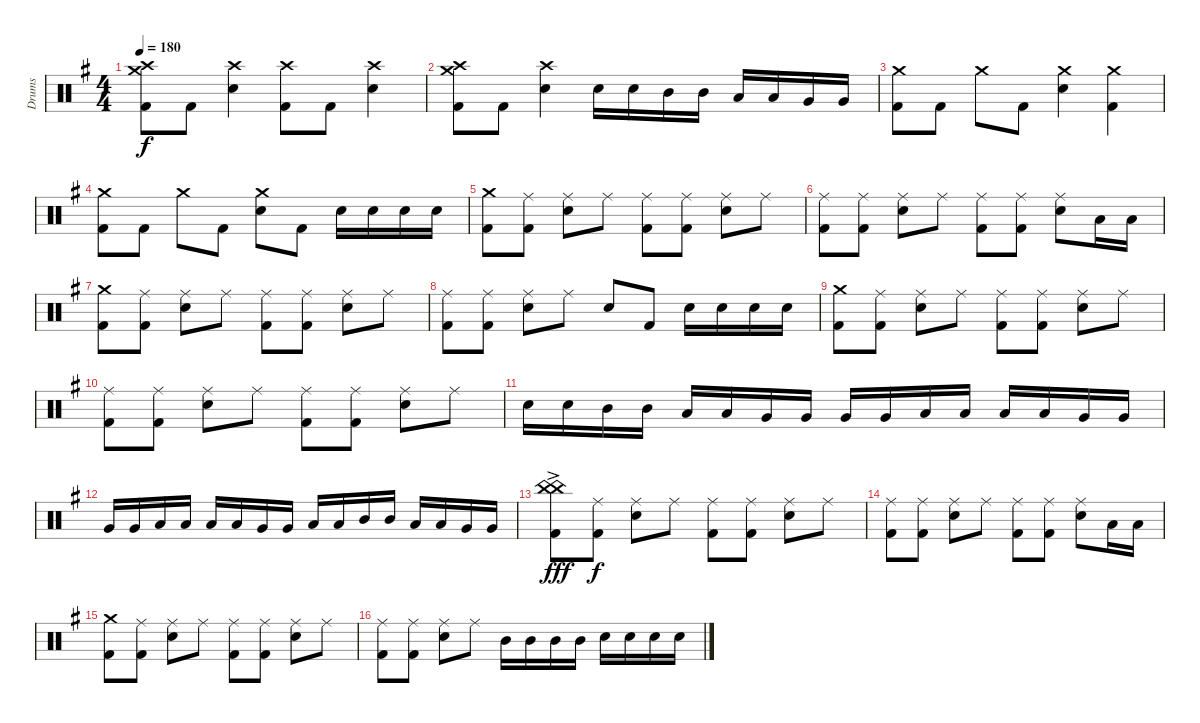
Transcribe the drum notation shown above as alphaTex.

\track ("Drums" "Drums") {instrument percussion}
\staff {score}
\articulation defaults
\ts (4 4)
\tempo 180
\clef neutral
\ks g
("Crash medium (hit)" "Crash high (hit)" "Kick (hit) 2").8{dy f} "Kick (hit) 2".8 ("Crash high (hit)" "Electric Snare (hit)").4 ("Crash high (hit)" "Kick (hit) 2").8 "Kick (hit) 2".8 ("Crash high (hit)" "Electric Snare (hit)").4 |
("Crash medium (hit)" "Crash high (hit)" "Kick (hit) 2").8 "Kick (hit) 2".8 ("Crash high (hit)" "Electric Snare (hit)").4 "Electric Snare (hit)".16 "Electric Snare (hit)".16 "Mid Tom (hit)".16 "Mid Tom (hit)".16 "Low Tom (hit)".16 "Low Tom (hit)".16 "Very Low Tom (hit)".16 "Very Low Tom (hit)".16 |
("Crash medium (hit)" "Kick (hit) 2").8 "Kick (hit) 2".8 "Crash medium (hit)".8 "Kick (hit) 2".8 ("Crash medium (hit)" "Electric Snare (hit)").4 ("Crash medium (hit)" "Kick (hit) 2").4 |
("Crash medium (hit)" "Kick (hit) 2").8 "Kick (hit) 2".8 "Crash medium (hit)".8 "Kick (hit) 2".8 ("Crash medium (hit)" "Electric Snare (hit)").8 "Kick (hit) 2".8 "Electric Snare (hit)".16 "Electric Snare (hit)".16 "Electric Snare (hit)".16 "Electric Snare (hit)".16 |
("Crash medium (hit)" "Kick (hit) 2").8 ("Ride (middle)" "Kick (hit) 2").8 ("Ride (middle)" "Electric Snare (hit)").8 "Ride (middle)".8 ("Ride (middle)" "Kick (hit) 2").8 ("Ride (middle)" "Kick (hit) 2").8 ("Ride (middle)" "Electric Snare (hit)").8 "Ride (middle)".8 |
("Ride (middle)" "Kick (hit) 2").8 ("Ride (middle)" "Kick (hit) 2").8 ("Ride (middle)" "Electric Snare (hit)").8 "Ride (middle)".8 ("Ride (middle)" "Kick (hit) 2").8 ("Ride (middle)" "Kick (hit) 2").8 ("Ride (middle)" "Electric Snare (hit)").8 "Low Tom (hit)".16 "Low Tom (hit)".16 |
("Crash medium (hit)" "Kick (hit) 2").8 ("Ride (middle)" "Kick (hit) 2").8 ("Ride (middle)" "Electric Snare (hit)").8 "Ride (middle)".8 ("Ride (middle)" "Kick (hit) 2").8 ("Ride (middle)" "Kick (hit) 2").8 ("Ride (middle)" "Electric Snare (hit)").8 "Ride (middle)".8 |
("Ride (middle)" "Kick (hit) 2").8 ("Ride (middle)" "Kick (hit) 2").8 ("Ride (middle)" "Electric Snare (hit)").8 "Ride (middle)".8 "Electric Snare (hit)".8 "Kick (hit) 2".8 "Electric Snare (hit)".16 "Electric Snare (hit)".16 "Electric Snare (hit)".16 "Electric Snare (hit)".16 |
("Crash medium (hit)" "Kick (hit) 2").8 ("Ride (middle)" "Kick (hit) 2").8 ("Ride (middle)" "Electric Snare (hit)").8 "Ride (middle)".8 ("Ride (middle)" "Kick (hit) 2").8 ("Ride (middle)" "Kick (hit) 2").8 ("Ride (middle)" "Electric Snare (hit)").8 "Ride (middle)".8 |
("Ride (middle)" "Kick (hit) 2").8 ("Ride (middle)" "Kick (hit) 2").8 ("Ride (middle)" "Electric Snare (hit)").8 "Ride (middle)".8 ("Ride (middle)" "Kick (hit) 2").8 ("Ride (middle)" "Kick (hit) 2").8 ("Ride (middle)" "Electric Snare (hit)").8 "Ride (middle)".8 |
"Electric Snare (hit)".16 "Electric Snare (hit)".16 "Mid Tom (hit)".16 "Mid Tom (hit)".16 "Low Tom (hit)".16 "Low Tom (hit)".16 "Very Low Tom (hit)".16 "Very Low Tom (hit)".16 "Very Low Tom (hit)".16 "Very Low Tom (hit)".16 "Low Tom (hit)".16 "Low Tom (hit)".16 "Low Tom (hit)".16 "Low Tom (hit)".16 "Very Low Tom (hit)".16 "Very Low Tom (hit)".16 |
"Very Low Tom (hit)".16 "Very Low Tom (hit)".16 "Low Tom (hit)".16 "Low Tom (hit)".16 "Low Tom (hit)".16 "Low Tom (hit)".16 "Very Low Tom (hit)".16 "Very Low Tom (hit)".16 "Low Floor Tom (hit)".16 "Low Floor Tom (hit)".16 "Mid Tom (hit)".16 "Mid Tom (hit)".16 "Low Tom (hit)".16 "Low Tom (hit)".16 "Very Low Tom (hit)".16 "Very Low Tom (hit)".16 |
("China (hit)"{ac} "China (hit)"{ac} "Kick (hit) 2").8{dy fff} ("Ride (middle)" "Kick (hit) 2").8{dy f} ("Ride (middle)" "Electric Snare (hit)").8 "Ride (middle)".8 ("Ride (middle)" "Kick (hit) 2").8 ("Ride (middle)" "Kick (hit) 2").8 ("Ride (middle)" "Electric Snare (hit)").8 "Ride (middle)".8 |
("Ride (middle)" "Kick (hit) 2").8 ("Ride (middle)" "Kick (hit) 2").8 ("Ride (middle)" "Electric Snare (hit)").8 "Ride (middle)".8 ("Ride (middle)" "Kick (hit) 2").8 ("Ride (middle)" "Kick (hit) 2").8 ("Ride (middle)" "Electric Snare (hit)").8 "Low Tom (hit)".16 "Low Tom (hit)".16 |
("Crash medium (hit)" "Kick (hit) 2").8 ("Ride (middle)" "Kick (hit) 2").8 ("Ride (middle)" "Electric Snare (hit)").8 "Ride (middle)".8 ("Ride (middle)" "Kick (hit) 2").8 ("Ride (middle)" "Kick (hit) 2").8 ("Ride (middle)" "Electric Snare (hit)").8 "Ride (middle)".8 |
("Ride (middle)" "Kick (hit) 2").8 ("Ride (middle)" "Kick (hit) 2").8 ("Ride (middle)" "Electric Snare (hit)").8 "Ride (middle)".8 "Mid Tom (hit)".16 "Mid Tom (hit)".16 "Mid Tom (hit)".16 "Mid Tom (hit)".16 "Electric Snare (hit)".16 "Electric Snare (hit)".16 "Electric Snare (hit)".16 "Electric Snare (hit)".16
